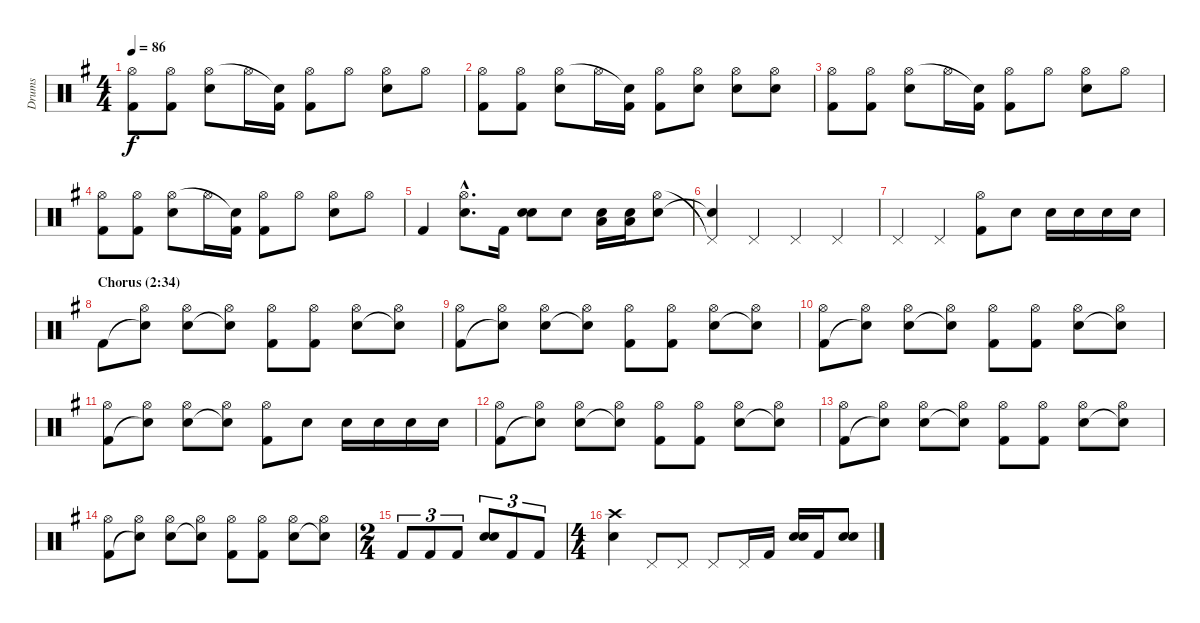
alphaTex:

\track ("Drums" "Drums") {instrument percussion}
\staff {score}
\articulation defaults
\ts (4 4)
\tempo 86
\clef neutral
\ks eminor
("Kick (hit) 2" "Hi-Hat (open)").8{dy f} ("Kick (hit) 2" "Hi-Hat (open)").8 ("Electric Snare (hit)" "Hi-Hat (open)").8 "Hi-Hat (open)".16 ("Kick (hit) 2" "Snare (hit)"{t}).16 ("Kick (hit) 2" "Hi-Hat (open)").8 "Hi-Hat (open)".8 ("Electric Snare (hit)" "Hi-Hat (open)").8 "Hi-Hat (open)".8 |
("Kick (hit) 2" "Hi-Hat (open)").8 ("Kick (hit) 2" "Hi-Hat (open)").8 ("Electric Snare (hit)" "Hi-Hat (open)").8 "Hi-Hat (open)".16 ("Kick (hit) 2" "Snare (hit)"{t}).16 ("Kick (hit) 2" "Hi-Hat (open)").8 ("Hi-Hat (open)" "Electric Snare (hit)").8 ("Hi-Hat (open)" "Electric Snare (hit)").8 ("Hi-Hat (open)" "Electric Snare (hit)").8 |
("Kick (hit) 2" "Hi-Hat (open)").8 ("Kick (hit) 2" "Hi-Hat (open)").8 ("Electric Snare (hit)" "Hi-Hat (open)").8 "Hi-Hat (open)".16 ("Kick (hit) 2" "Snare (hit)"{t}).16 ("Kick (hit) 2" "Hi-Hat (open)").8 "Hi-Hat (open)".8 ("Electric Snare (hit)" "Hi-Hat (open)").8 "Hi-Hat (open)".8 |
("Kick (hit) 2" "Hi-Hat (open)").8 ("Kick (hit) 2" "Hi-Hat (open)").8 ("Electric Snare (hit)" "Hi-Hat (open)").8 "Hi-Hat (open)".16 ("Kick (hit) 2" "Snare (hit)"{t}).16 ("Kick (hit) 2" "Hi-Hat (open)").8 "Hi-Hat (open)".8 ("Electric Snare (hit)" "Hi-Hat (open)").8 "Hi-Hat (open)".8 |
"Kick (hit) 2".4 ("Electric Snare (hit)"{hac} "Hi-Hat (open)"{hac}).8{d} "Kick (hit) 2".16 ("Electric Snare (hit)" "Electric Snare (hit)").8 "Electric Snare (hit)".8 ("Electric Snare (hit)" "Low Tom (hit)").16 ("Electric Snare (hit)" "Low Tom (hit)").16 ("Electric Snare (hit)" "Hi-Hat (open)").8 |
("Snare (hit)"{t} "Pedal Hi-Hat (hit)"{t}).4 "Pedal Hi-Hat (hit)".4 "Pedal Hi-Hat (hit)".4 "Pedal Hi-Hat (hit)".4 |
"Pedal Hi-Hat (hit)".4 "Pedal Hi-Hat (hit)".4 ("Kick (hit) 2" "Hi-Hat (open)").8 "Electric Snare (hit)".8 "Electric Snare (hit)".16 "Electric Snare (hit)".16 "Electric Snare (hit)".16 "Electric Snare (hit)".16 |
\section ("" "Chorus (2:34)")
"Kick (hit) 2".8 ("Snare (hit)"{t} "Hi-Hat (open)").8 ("Electric Snare (hit)" "Hi-Hat (open)").8 ("Snare (hit)"{t} "Hi-Hat (open)").8 ("Kick (hit) 2" "Hi-Hat (open)").8 ("Kick (hit) 2" "Hi-Hat (open)").8 ("Electric Snare (hit)" "Hi-Hat (open)").8 ("Snare (hit)"{t} "Hi-Hat (open)").8 |
("Kick (hit) 2" "Hi-Hat (open)").8 ("Snare (hit)"{t} "Hi-Hat (open)").8 ("Electric Snare (hit)" "Hi-Hat (open)").8 ("Snare (hit)"{t} "Hi-Hat (open)").8 ("Kick (hit) 2" "Hi-Hat (open)").8 ("Kick (hit) 2" "Hi-Hat (open)").8 ("Electric Snare (hit)" "Hi-Hat (open)").8 ("Snare (hit)"{t} "Hi-Hat (open)").8 |
("Kick (hit) 2" "Hi-Hat (open)").8 ("Snare (hit)"{t} "Hi-Hat (open)").8 ("Electric Snare (hit)" "Hi-Hat (open)").8 ("Snare (hit)"{t} "Hi-Hat (open)").8 ("Kick (hit) 2" "Hi-Hat (open)").8 ("Kick (hit) 2" "Hi-Hat (open)").8 ("Electric Snare (hit)" "Hi-Hat (open)").8 ("Snare (hit)"{t} "Hi-Hat (open)").8 |
("Kick (hit) 2" "Hi-Hat (open)").8 ("Snare (hit)"{t} "Hi-Hat (open)").8 ("Electric Snare (hit)" "Hi-Hat (open)").8 ("Snare (hit)"{t} "Hi-Hat (open)").8 ("Kick (hit) 2" "Hi-Hat (open)").8 "Electric Snare (hit)".8 "Electric Snare (hit)".16 "Electric Snare (hit)".16 "Electric Snare (hit)".16 "Electric Snare (hit)".16 |
("Kick (hit) 2" "Hi-Hat (open)").8 ("Snare (hit)"{t} "Hi-Hat (open)").8 ("Electric Snare (hit)" "Hi-Hat (open)").8 ("Snare (hit)"{t} "Hi-Hat (open)").8 ("Kick (hit) 2" "Hi-Hat (open)").8 ("Kick (hit) 2" "Hi-Hat (open)").8 ("Electric Snare (hit)" "Hi-Hat (open)").8 ("Snare (hit)"{t} "Hi-Hat (open)").8 |
("Kick (hit) 2" "Hi-Hat (open)").8 ("Snare (hit)"{t} "Hi-Hat (open)").8 ("Electric Snare (hit)" "Hi-Hat (open)").8 ("Snare (hit)"{t} "Hi-Hat (open)").8 ("Kick (hit) 2" "Hi-Hat (open)").8 ("Kick (hit) 2" "Hi-Hat (open)").8 ("Electric Snare (hit)" "Hi-Hat (open)").8 ("Snare (hit)"{t} "Hi-Hat (open)").8 |
("Kick (hit) 2" "Hi-Hat (open)").8 ("Snare (hit)"{t} "Hi-Hat (open)").8 ("Electric Snare (hit)" "Hi-Hat (open)").8 ("Snare (hit)"{t} "Hi-Hat (open)").8 ("Kick (hit) 2" "Hi-Hat (open)").8 ("Kick (hit) 2" "Hi-Hat (open)").8 ("Electric Snare (hit)" "Hi-Hat (open)").8 ("Snare (hit)"{t} "Hi-Hat (open)").8 |
\ts (2 4)
"Kick (hit) 2".8{tu (3 2)} "Kick (hit) 2".8{tu (3 2)} "Kick (hit) 2".8{tu (3 2)} ("Electric Snare (hit)" "Electric Snare (hit)").8{tu (3 2)} "Kick (hit) 2".8{tu (3 2)} "Kick (hit) 2".8{tu (3 2)} |
\ts (4 4)
("Electric Snare (hit)" "Crash high (hit)").4 "Pedal Hi-Hat (hit)".8 "Pedal Hi-Hat (hit)".8 "Pedal Hi-Hat (hit)".8 "Pedal Hi-Hat (hit)".16 "Kick (hit) 2".16 ("Electric Snare (hit)" "Electric Snare (hit)").16 "Kick (hit) 2".16 ("Electric Snare (hit)" "Electric Snare (hit)").8
